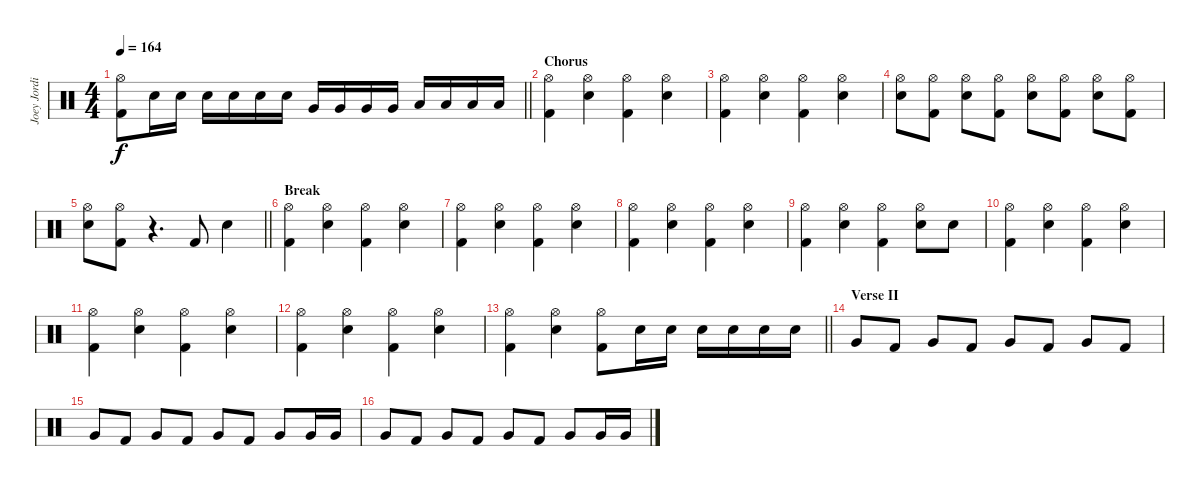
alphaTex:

\track ("Joey Jordison III" "Joey Jordi") {instrument percussion}
\staff {score}
\articulation defaults
\ts (4 4)
\tempo 164
\clef neutral
\barLineRight lightlight
\ks c
("Hi-Hat (open)" "Kick (hit) 2").8{dy f} "Electric Snare (hit)".16 "Electric Snare (hit)".16 "Electric Snare (hit)".16 "Electric Snare (hit)".16 "Electric Snare (hit)".16 "Electric Snare (hit)".16 "Very Low Tom (hit)".16 "Very Low Tom (hit)".16 "Very Low Tom (hit)".16 "Very Low Tom (hit)".16 "Low Floor Tom (hit)".16 "Low Floor Tom (hit)".16 "Low Floor Tom (hit)".16 "Low Floor Tom (hit)".16 |
\section ("" "Chorus")
("Hi-Hat (open)" "Kick (hit) 2").4 ("Hi-Hat (open)" "Electric Snare (hit)").4 ("Hi-Hat (open)" "Kick (hit) 2").4 ("Hi-Hat (open)" "Electric Snare (hit)").4 |
("Hi-Hat (open)" "Kick (hit) 2").4 ("Hi-Hat (open)" "Electric Snare (hit)").4 ("Hi-Hat (open)" "Kick (hit) 2").4 ("Hi-Hat (open)" "Electric Snare (hit)").4 |
("Hi-Hat (open)" "Electric Snare (hit)").8 ("Hi-Hat (open)" "Kick (hit) 2").8 ("Hi-Hat (open)" "Electric Snare (hit)").8 ("Hi-Hat (open)" "Kick (hit) 2").8 ("Hi-Hat (open)" "Electric Snare (hit)").8 ("Hi-Hat (open)" "Kick (hit) 2").8 ("Hi-Hat (open)" "Electric Snare (hit)").8 ("Hi-Hat (open)" "Kick (hit) 2").8 |
\barLineRight lightlight
("Hi-Hat (open)" "Electric Snare (hit)").8 ("Hi-Hat (open)" "Kick (hit) 2").8 r.4{d} "Kick (hit) 2".8 "Electric Snare (hit)".4 |
\section ("" "Break")
("Hi-Hat (open)" "Kick (hit) 2").4 ("Hi-Hat (open)" "Electric Snare (hit)").4 ("Hi-Hat (open)" "Kick (hit) 2").4 ("Hi-Hat (open)" "Electric Snare (hit)").4 |
("Hi-Hat (open)" "Kick (hit) 2").4 ("Hi-Hat (open)" "Electric Snare (hit)").4 ("Hi-Hat (open)" "Kick (hit) 2").4 ("Hi-Hat (open)" "Electric Snare (hit)").4 |
("Hi-Hat (open)" "Kick (hit) 2").4 ("Hi-Hat (open)" "Electric Snare (hit)").4 ("Hi-Hat (open)" "Kick (hit) 2").4 ("Hi-Hat (open)" "Electric Snare (hit)").4 |
("Hi-Hat (open)" "Kick (hit) 2").4 ("Hi-Hat (open)" "Electric Snare (hit)").4 ("Hi-Hat (open)" "Kick (hit) 2").4 ("Hi-Hat (open)" "Electric Snare (hit)").8 "Electric Snare (hit)".8 |
("Hi-Hat (open)" "Kick (hit) 2").4 ("Hi-Hat (open)" "Electric Snare (hit)").4 ("Hi-Hat (open)" "Kick (hit) 2").4 ("Hi-Hat (open)" "Electric Snare (hit)").4 |
("Hi-Hat (open)" "Kick (hit) 2").4 ("Hi-Hat (open)" "Electric Snare (hit)").4 ("Hi-Hat (open)" "Kick (hit) 2").4 ("Hi-Hat (open)" "Electric Snare (hit)").4 |
("Hi-Hat (open)" "Kick (hit) 2").4 ("Hi-Hat (open)" "Electric Snare (hit)").4 ("Hi-Hat (open)" "Kick (hit) 2").4 ("Hi-Hat (open)" "Electric Snare (hit)").4 |
\barLineRight lightlight
("Hi-Hat (open)" "Kick (hit) 2").4 ("Hi-Hat (open)" "Electric Snare (hit)").4 ("Hi-Hat (open)" "Kick (hit) 2").8 "Electric Snare (hit)".16 "Electric Snare (hit)".16 "Electric Snare (hit)".16 "Electric Snare (hit)".16 "Electric Snare (hit)".16 "Electric Snare (hit)".16 |
\section ("" "Verse II")
"Very Low Tom (hit)".8 "Kick (hit) 2".8 "Very Low Tom (hit)".8 "Kick (hit) 2".8 "Very Low Tom (hit)".8 "Kick (hit) 2".8 "Very Low Tom (hit)".8 "Kick (hit) 2".8 |
"Very Low Tom (hit)".8 "Kick (hit) 2".8 "Very Low Tom (hit)".8 "Kick (hit) 2".8 "Very Low Tom (hit)".8 "Kick (hit) 2".8 "Very Low Tom (hit)".8 "Very Low Tom (hit)".16 "Very Low Tom (hit)".16 |
"Very Low Tom (hit)".8 "Kick (hit) 2".8 "Very Low Tom (hit)".8 "Kick (hit) 2".8 "Very Low Tom (hit)".8 "Kick (hit) 2".8 "Very Low Tom (hit)".8 "Very Low Tom (hit)".16 "Very Low Tom (hit)".16
